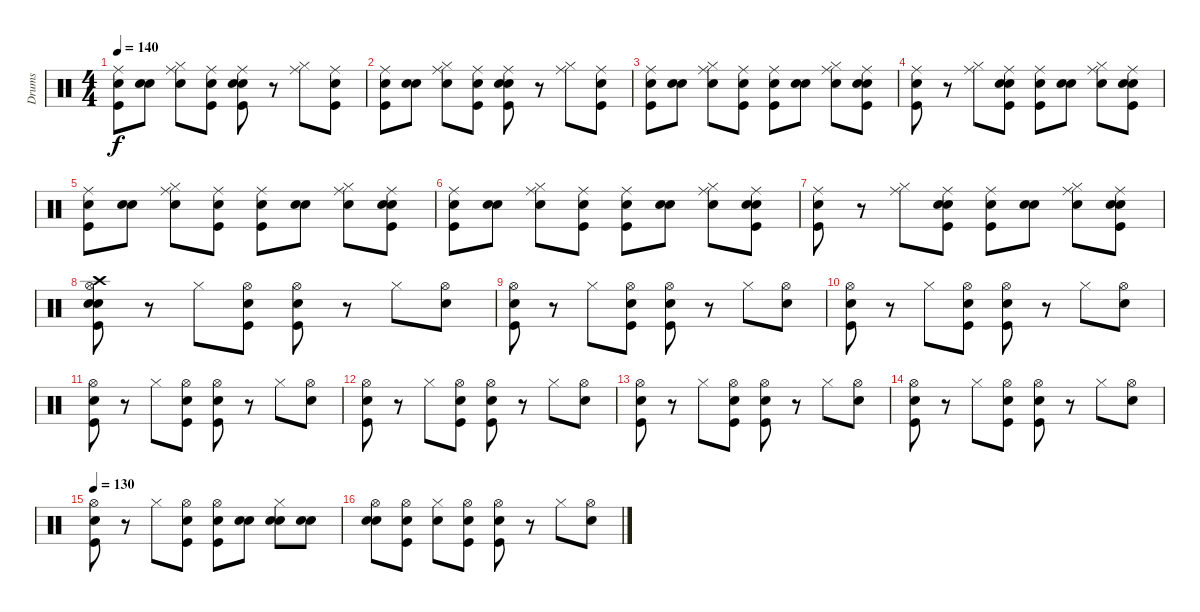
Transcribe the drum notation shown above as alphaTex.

\track ("Drums" "Drums") {instrument percussion}
\staff {score}
\articulation defaults
\ts (4 4)
\tempo 140
\clef neutral
\ks c
("Snare (hit)" "Kick (hit)" "Ride (middle)").8{dy f} ("Snare (hit)" "Snare (hit) 2").8 ("Snare (hit)" "Hi-Hat (closed)" "Ride (middle)").8 ("Snare (hit)" "Kick (hit)" "Ride (middle)").8 ("Snare (hit)" "Kick (hit)" "Snare (hit) 2" "Ride (middle)").8 r.8 ("Hi-Hat (closed)" "Ride (middle)").8 ("Snare (hit)" "Kick (hit)" "Ride (middle)").8 |
("Snare (hit)" "Kick (hit)" "Ride (middle)").8 ("Snare (hit)" "Snare (hit) 2").8 ("Snare (hit)" "Hi-Hat (closed)" "Ride (middle)").8 ("Snare (hit)" "Kick (hit)" "Ride (middle)").8 ("Snare (hit)" "Kick (hit)" "Snare (hit) 2" "Ride (middle)").8 r.8 ("Hi-Hat (closed)" "Ride (middle)").8 ("Snare (hit)" "Kick (hit)" "Ride (middle)").8 |
("Snare (hit)" "Kick (hit)" "Ride (middle)").8 ("Snare (hit)" "Snare (hit) 2").8 ("Snare (hit)" "Hi-Hat (closed)" "Ride (middle)").8 ("Snare (hit)" "Kick (hit)" "Ride (middle)").8 ("Snare (hit)" "Kick (hit)" "Ride (middle)").8 ("Snare (hit)" "Snare (hit) 2").8 ("Snare (hit)" "Hi-Hat (closed)" "Ride (middle)").8 ("Snare (hit)" "Kick (hit)" "Snare (hit) 2" "Ride (middle)").8 |
("Snare (hit)" "Kick (hit)" "Ride (middle)").8 r.8 ("Hi-Hat (closed)" "Ride (middle)").8 ("Snare (hit)" "Kick (hit)" "Snare (hit) 2" "Ride (middle)").8 ("Snare (hit)" "Kick (hit)" "Ride (middle)").8 ("Snare (hit)" "Snare (hit) 2").8 ("Snare (hit)" "Hi-Hat (closed)" "Ride (middle)").8 ("Snare (hit)" "Kick (hit)" "Snare (hit) 2" "Ride (middle)").8 |
("Snare (hit)" "Kick (hit)" "Ride (middle)").8 ("Snare (hit)" "Snare (hit) 2").8 ("Snare (hit)" "Hi-Hat (closed)" "Ride (middle)").8 ("Snare (hit)" "Kick (hit)" "Ride (middle)").8 ("Snare (hit)" "Kick (hit)" "Ride (middle)").8 ("Snare (hit)" "Snare (hit) 2").8 ("Snare (hit)" "Hi-Hat (closed)" "Ride (middle)").8 ("Snare (hit)" "Kick (hit)" "Snare (hit) 2" "Ride (middle)").8 |
("Snare (hit)" "Kick (hit)" "Ride (middle)").8 ("Snare (hit)" "Snare (hit) 2").8 ("Snare (hit)" "Hi-Hat (closed)" "Ride (middle)").8 ("Snare (hit)" "Kick (hit)" "Ride (middle)").8 ("Snare (hit)" "Kick (hit)" "Ride (middle)").8 ("Snare (hit)" "Snare (hit) 2").8 ("Snare (hit)" "Hi-Hat (closed)" "Ride (middle)").8 ("Snare (hit)" "Kick (hit)" "Snare (hit) 2" "Ride (middle)").8 |
("Snare (hit)" "Kick (hit)" "Ride (middle)").8 r.8 ("Hi-Hat (closed)" "Ride (middle)").8 ("Snare (hit)" "Kick (hit)" "Snare (hit) 2" "Ride (middle)").8 ("Snare (hit)" "Kick (hit)" "Ride (middle)").8 ("Snare (hit)" "Snare (hit) 2").8 ("Snare (hit)" "Hi-Hat (closed)" "Ride (middle)").8 ("Snare (hit)" "Kick (hit)" "Snare (hit) 2" "Ride (middle)").8 |
("Snare (hit)" "Kick (hit)" "Snare (hit) 2" "Hi-Hat (open)" "Crash high (hit)").8 r.8 "Hi-Hat (closed)".8 ("Snare (hit)" "Kick (hit)" "Hi-Hat (open)").8 ("Snare (hit)" "Kick (hit)" "Hi-Hat (open)").8 r.8 "Hi-Hat (closed)".8 ("Snare (hit)" "Hi-Hat (open)").8 |
("Snare (hit)" "Kick (hit)" "Hi-Hat (open)").8 r.8 "Hi-Hat (closed)".8 ("Snare (hit)" "Kick (hit)" "Hi-Hat (open)").8 ("Snare (hit)" "Kick (hit)" "Hi-Hat (open)").8 r.8 "Hi-Hat (closed)".8 ("Snare (hit)" "Hi-Hat (open)").8 |
("Snare (hit)" "Kick (hit)" "Hi-Hat (open)").8 r.8 "Hi-Hat (closed)".8 ("Snare (hit)" "Kick (hit)" "Hi-Hat (open)").8 ("Snare (hit)" "Kick (hit)" "Hi-Hat (open)").8 r.8 "Hi-Hat (closed)".8 ("Snare (hit)" "Hi-Hat (open)").8 |
("Snare (hit)" "Kick (hit)" "Hi-Hat (open)").8 r.8 "Hi-Hat (closed)".8 ("Snare (hit)" "Kick (hit)" "Hi-Hat (open)").8 ("Snare (hit)" "Kick (hit)" "Hi-Hat (open)").8 r.8 "Hi-Hat (closed)".8 ("Snare (hit)" "Hi-Hat (open)").8 |
("Snare (hit)" "Kick (hit)" "Hi-Hat (open)").8 r.8 "Hi-Hat (closed)".8 ("Snare (hit)" "Kick (hit)" "Hi-Hat (open)").8 ("Snare (hit)" "Kick (hit)" "Hi-Hat (open)").8 r.8 "Hi-Hat (closed)".8 ("Snare (hit)" "Hi-Hat (open)").8 |
("Snare (hit)" "Kick (hit)" "Hi-Hat (open)").8 r.8 "Hi-Hat (closed)".8 ("Snare (hit)" "Kick (hit)" "Hi-Hat (open)").8 ("Snare (hit)" "Kick (hit)" "Hi-Hat (open)").8 r.8 "Hi-Hat (closed)".8 ("Snare (hit)" "Hi-Hat (open)").8 |
("Snare (hit)" "Kick (hit)" "Hi-Hat (open)").8 r.8 "Hi-Hat (closed)".8 ("Snare (hit)" "Kick (hit)" "Hi-Hat (open)").8 ("Snare (hit)" "Kick (hit)" "Hi-Hat (open)").8 r.8 "Hi-Hat (closed)".8 ("Snare (hit)" "Hi-Hat (open)").8 |
\tempo 130
("Snare (hit)" "Kick (hit)" "Hi-Hat (open)").8 r.8 "Hi-Hat (closed)".8 ("Snare (hit)" "Kick (hit)" "Hi-Hat (open)").8 ("Snare (hit)" "Kick (hit)" "Hi-Hat (open)").8 ("Snare (hit)" "Snare (hit) 2").8 ("Snare (hit)" "Snare (hit) 2" "Hi-Hat (closed)").8 ("Snare (hit)" "Snare (hit) 2").8 |
("Snare (hit)" "Snare (hit) 2" "Hi-Hat (open)").8 ("Snare (hit)" "Kick (hit)" "Hi-Hat (open)").8 ("Snare (hit)" "Hi-Hat (closed)").8 ("Snare (hit)" "Kick (hit)" "Hi-Hat (open)").8 ("Snare (hit)" "Kick (hit)" "Hi-Hat (open)").8 r.8 "Hi-Hat (closed)".8 ("Snare (hit)" "Hi-Hat (open)").8
